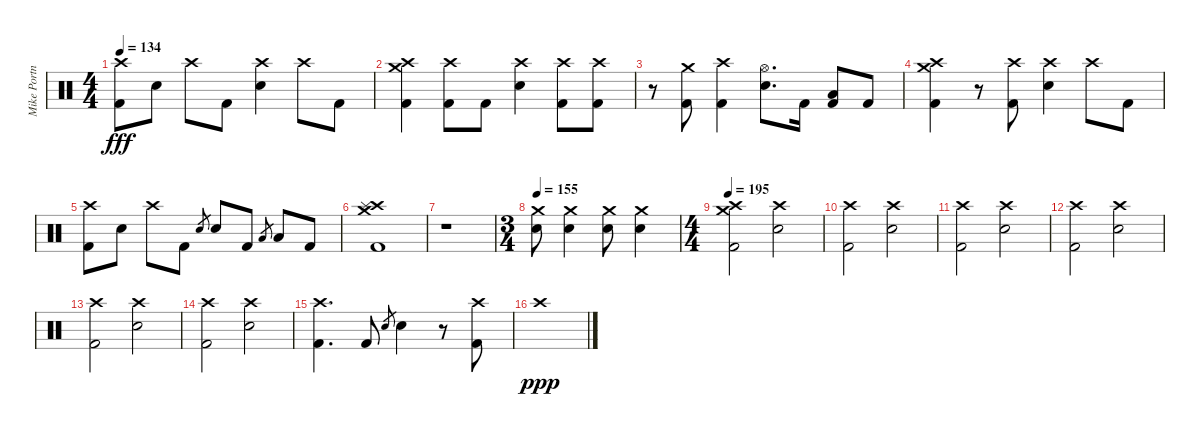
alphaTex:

\track ("Mike Portnoy" "Mike Portn") {instrument percussion}
\staff {score}
\articulation defaults
\ts (4 4)
\tempo 134
\clef neutral
\ks c
("Crash high (hit)" "Kick (hit) 2").8{dy fff} "Electric Snare (hit)".8 "Crash high (hit)".8 "Kick (hit) 2".8 ("Crash high (hit)" "Electric Snare (hit)").4 "Crash high (hit)".8 "Kick (hit) 2".8 |
("Crash high (hit)" "Crash medium (hit)" "Kick (hit) 2").4 ("Crash high (hit)" "Kick (hit) 2").8 "Kick (hit) 2".8 ("Crash high (hit)" "Electric Snare (hit)").4 ("Crash high (hit)" "Kick (hit) 2").8 ("Crash high (hit)" "Kick (hit) 2").8 |
r.8 ("Crash medium (hit)" "Kick (hit) 2").8 ("Crash high (hit)" "Kick (hit) 2").4 ("Hi-Hat (open)" "Electric Snare (hit)").8{d} "Kick (hit) 2".16 ("Kick (hit) 2" "Low Floor Tom (hit)").8 "Kick (hit) 2".8 |
("Crash high (hit)" "Crash medium (hit)" "Kick (hit) 2").4 r.8 ("Crash high (hit)" "Kick (hit) 2").8 ("Crash high (hit)" "Electric Snare (hit)").4 "Crash high (hit)".8 "Kick (hit) 2".8 |
("Crash high (hit)" "Kick (hit) 2").8 "Electric Snare (hit)".8 "Crash high (hit)".8 "Kick (hit) 2".8 "Electric Snare (hit)".8{gr} "Electric Snare (hit)".8 "Kick (hit) 2".8 "Low Tom (hit)".8{gr} "Low Tom (hit)".8 "Kick (hit) 2".8 |
("Crash high (hit)" "Crash medium (hit)" "Splash (hit)" "Kick (hit) 2").1 |
r.1 |
\ts (3 4)
\tempo 155
("Crash medium (hit)" "Electric Snare (hit)").8 ("Crash medium (hit)" "Electric Snare (hit)").4 ("Crash medium (hit)" "Electric Snare (hit)").8 ("Crash medium (hit)" "Electric Snare (hit)").4 |
\ts (4 4)
\tempo 195
("Crash high (hit)" "Crash medium (hit)" "Kick (hit) 2").2 ("Crash high (hit)" "Electric Snare (hit)").2 |
("Crash high (hit)" "Kick (hit) 2").2 ("Crash high (hit)" "Electric Snare (hit)").2 |
("Crash high (hit)" "Kick (hit) 2").2 ("Crash high (hit)" "Electric Snare (hit)").2 |
("Crash high (hit)" "Kick (hit) 2").2 ("Crash high (hit)" "Electric Snare (hit)").2 |
("Crash high (hit)" "Kick (hit) 2").2 ("Crash high (hit)" "Electric Snare (hit)").2 |
("Crash high (hit)" "Kick (hit) 2").2 ("Crash high (hit)" "Electric Snare (hit)").2 |
("Crash high (hit)" "Kick (hit) 2").4{d} "Kick (hit) 2".8 "Electric Snare (hit)".8{gr} "Electric Snare (hit)".4 r.8 ("Crash high (hit)" "Kick (hit) 2").8 |
"Crash high (hit)".1{dy ppp}
